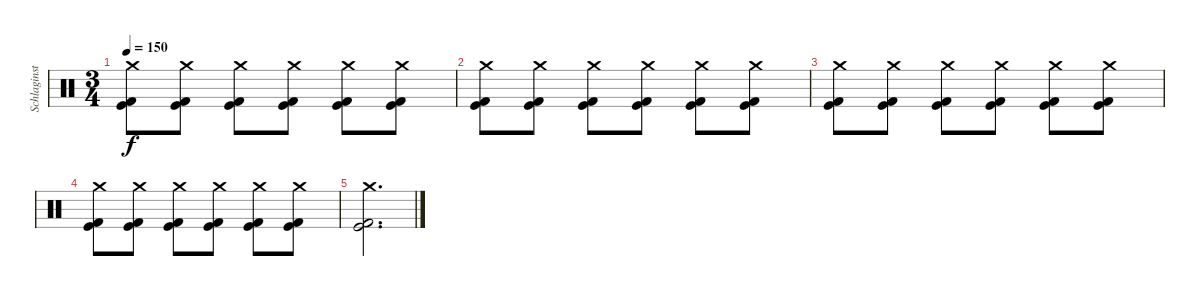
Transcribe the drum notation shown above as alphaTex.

\track ("Schlaginstrumente - Auswahl" "Schlaginst") {instrument percussion}
\staff {score}
\articulation defaults
\ts (3 4)
\tempo 150
\clef neutral
\ks c
("Crash medium (hit)" "Kick (hit)" "Kick (hit) 2").8{dy f} ("Crash medium (hit)" "Kick (hit)" "Kick (hit) 2").8 ("Crash medium (hit)" "Kick (hit)" "Kick (hit) 2").8 ("Crash medium (hit)" "Kick (hit)" "Kick (hit) 2").8 ("Crash medium (hit)" "Kick (hit)" "Kick (hit) 2").8 ("Crash medium (hit)" "Kick (hit)" "Kick (hit) 2").8 |
("Crash medium (hit)" "Kick (hit)" "Kick (hit) 2").8 ("Crash medium (hit)" "Kick (hit)" "Kick (hit) 2").8 ("Crash medium (hit)" "Kick (hit)" "Kick (hit) 2").8 ("Crash medium (hit)" "Kick (hit)" "Kick (hit) 2").8 ("Crash medium (hit)" "Kick (hit)" "Kick (hit) 2").8 ("Crash medium (hit)" "Kick (hit)" "Kick (hit) 2").8 |
("Crash medium (hit)" "Kick (hit)" "Kick (hit) 2").8 ("Crash medium (hit)" "Kick (hit)" "Kick (hit) 2").8 ("Crash medium (hit)" "Kick (hit)" "Kick (hit) 2").8 ("Crash medium (hit)" "Kick (hit)" "Kick (hit) 2").8 ("Crash medium (hit)" "Kick (hit)" "Kick (hit) 2").8 ("Crash medium (hit)" "Kick (hit)" "Kick (hit) 2").8 |
("Crash medium (hit)" "Kick (hit)" "Kick (hit) 2").8 ("Crash medium (hit)" "Kick (hit)" "Kick (hit) 2").8 ("Crash medium (hit)" "Kick (hit)" "Kick (hit) 2").8 ("Crash medium (hit)" "Kick (hit)" "Kick (hit) 2").8 ("Crash medium (hit)" "Kick (hit)" "Kick (hit) 2").8 ("Crash medium (hit)" "Kick (hit)" "Kick (hit) 2").8 |
("Crash medium (hit)" "Kick (hit)" "Kick (hit) 2").2{d}
